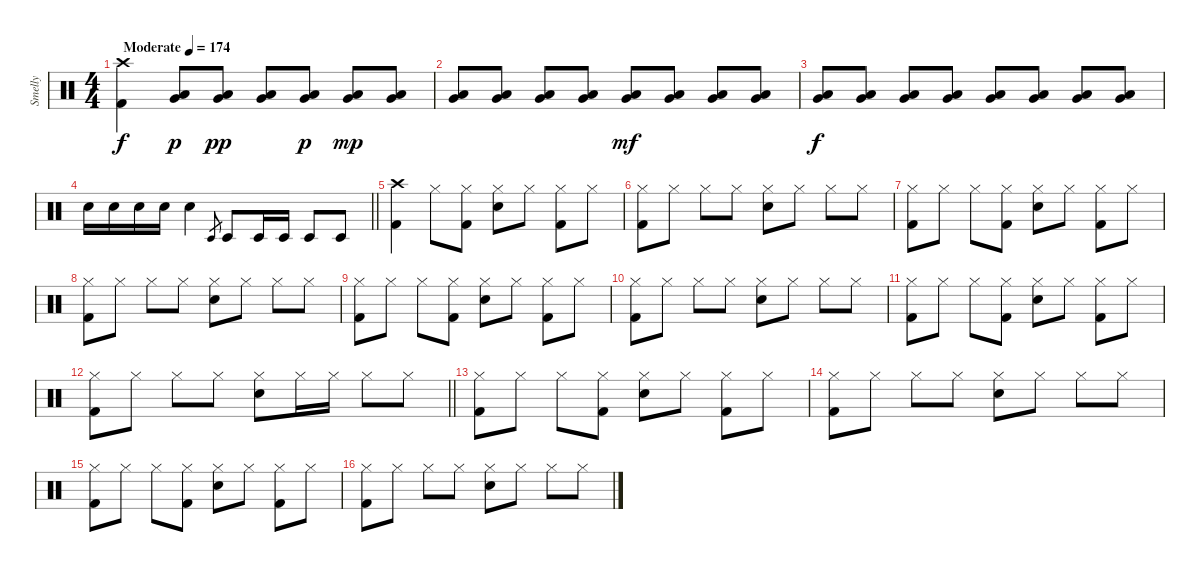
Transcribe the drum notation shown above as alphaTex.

\track ("Smelly" "Smelly") {instrument percussion}
\staff {score}
\articulation defaults
\ts (4 4)
\tempo (174 "Moderate")
\clef neutral
\ks c
("Crash high (hit)" "Kick (hit) 2").4{dy f} ("Very Low Tom (hit)" "Low Floor Tom (hit)").8{dy p} ("Very Low Tom (hit)" "Low Floor Tom (hit)").8{dy pp} ("Very Low Tom (hit)" "Low Floor Tom (hit)").8 ("Very Low Tom (hit)" "Low Floor Tom (hit)").8{dy p} ("Very Low Tom (hit)" "Low Floor Tom (hit)").8{dy mp} ("Very Low Tom (hit)" "Low Floor Tom (hit)").8 |
("Very Low Tom (hit)" "Low Floor Tom (hit)").8 ("Very Low Tom (hit)" "Low Floor Tom (hit)").8 ("Very Low Tom (hit)" "Low Floor Tom (hit)").8 ("Very Low Tom (hit)" "Low Floor Tom (hit)").8 ("Very Low Tom (hit)" "Low Floor Tom (hit)").8{dy mf} ("Very Low Tom (hit)" "Low Floor Tom (hit)").8 ("Very Low Tom (hit)" "Low Floor Tom (hit)").8 ("Very Low Tom (hit)" "Low Floor Tom (hit)").8 |
("Very Low Tom (hit)" "Low Floor Tom (hit)").8{dy f} ("Very Low Tom (hit)" "Low Floor Tom (hit)").8 ("Very Low Tom (hit)" "Low Floor Tom (hit)").8 ("Very Low Tom (hit)" "Low Floor Tom (hit)").8 ("Very Low Tom (hit)" "Low Floor Tom (hit)").8 ("Very Low Tom (hit)" "Low Floor Tom (hit)").8 ("Very Low Tom (hit)" "Low Floor Tom (hit)").8 ("Very Low Tom (hit)" "Low Floor Tom (hit)").8 |
\barLineRight lightlight "Electric Snare (hit)".16 "Electric Snare (hit)".16 "Electric Snare (hit)".16 "Electric Snare (hit)".16 "Electric Snare (hit)".4 "Timbale low (hit)".8{gr} "Timbale low (hit)".8 "Timbale low (hit)".16 "Timbale low (hit)".16 "Timbale low (hit)".8 "Timbale low (hit)".8
|
\section ("" "")
("Crash high (hit)" "Kick (hit) 2").4 "Hi-Hat (closed)".8 ("Hi-Hat (closed)" "Kick (hit) 2").8 ("Hi-Hat (closed)" "Electric Snare (hit)").8 "Hi-Hat (closed)".8 ("Hi-Hat (closed)" "Kick (hit) 2").8 "Hi-Hat (closed)".8 |
("Hi-Hat (closed)" "Kick (hit) 2").8 "Hi-Hat (closed)".8 "Hi-Hat (closed)".8 "Hi-Hat (closed)".8 ("Hi-Hat (closed)" "Electric Snare (hit)").8 "Hi-Hat (closed)".8 "Hi-Hat (closed)".8 "Hi-Hat (closed)".8 |
("Hi-Hat (closed)" "Kick (hit) 2").8 "Hi-Hat (closed)".8 "Hi-Hat (closed)".8 ("Hi-Hat (closed)" "Kick (hit) 2").8 ("Hi-Hat (closed)" "Electric Snare (hit)").8 "Hi-Hat (closed)".8 ("Hi-Hat (closed)" "Kick (hit) 2").8 "Hi-Hat (closed)".8 |
("Hi-Hat (closed)" "Kick (hit) 2").8 "Hi-Hat (closed)".8 "Hi-Hat (closed)".8 "Hi-Hat (closed)".8 ("Hi-Hat (closed)" "Electric Snare (hit)").8 "Hi-Hat (closed)".8 "Hi-Hat (closed)".8 "Hi-Hat (closed)".8 |
("Hi-Hat (closed)" "Kick (hit) 2").8 "Hi-Hat (closed)".8 "Hi-Hat (closed)".8 ("Hi-Hat (closed)" "Kick (hit) 2").8 ("Hi-Hat (closed)" "Electric Snare (hit)").8 "Hi-Hat (closed)".8 ("Hi-Hat (closed)" "Kick (hit) 2").8 "Hi-Hat (closed)".8 |
("Hi-Hat (closed)" "Kick (hit) 2").8 "Hi-Hat (closed)".8 "Hi-Hat (closed)".8 "Hi-Hat (closed)".8 ("Hi-Hat (closed)" "Electric Snare (hit)").8 "Hi-Hat (closed)".8 "Hi-Hat (closed)".8 "Hi-Hat (closed)".8 |
("Hi-Hat (closed)" "Kick (hit) 2").8 "Hi-Hat (closed)".8 "Hi-Hat (closed)".8 ("Hi-Hat (closed)" "Kick (hit) 2").8 ("Hi-Hat (closed)" "Electric Snare (hit)").8 "Hi-Hat (closed)".8 ("Hi-Hat (closed)" "Kick (hit) 2").8 "Hi-Hat (closed)".8 |
\barLineRight lightlight
("Hi-Hat (closed)" "Kick (hit) 2").8 "Hi-Hat (closed)".8 "Hi-Hat (closed)".8 "Hi-Hat (closed)".8 ("Hi-Hat (closed)" "Electric Snare (hit)").8 "Hi-Hat (closed)".16 "Hi-Hat (closed)".16 "Hi-Hat (closed)".8 "Hi-Hat (closed)".8 |
\section ("" "")
("Hi-Hat (closed)" "Kick (hit) 2").8 "Hi-Hat (closed)".8 "Hi-Hat (closed)".8 ("Hi-Hat (closed)" "Kick (hit) 2").8 ("Hi-Hat (closed)" "Electric Snare (hit)").8 "Hi-Hat (closed)".8 ("Hi-Hat (closed)" "Kick (hit) 2").8 "Hi-Hat (closed)".8 |
("Hi-Hat (closed)" "Kick (hit) 2").8 "Hi-Hat (closed)".8 "Hi-Hat (closed)".8 "Hi-Hat (closed)".8 ("Hi-Hat (closed)" "Electric Snare (hit)").8 "Hi-Hat (closed)".8 "Hi-Hat (closed)".8 "Hi-Hat (closed)".8 |
("Hi-Hat (closed)" "Kick (hit) 2").8 "Hi-Hat (closed)".8 "Hi-Hat (closed)".8 ("Hi-Hat (closed)" "Kick (hit) 2").8 ("Hi-Hat (closed)" "Electric Snare (hit)").8 "Hi-Hat (closed)".8 ("Hi-Hat (closed)" "Kick (hit) 2").8 "Hi-Hat (closed)".8 |
("Hi-Hat (closed)" "Kick (hit) 2").8 "Hi-Hat (closed)".8 "Hi-Hat (closed)".8 "Hi-Hat (closed)".8 ("Hi-Hat (closed)" "Electric Snare (hit)").8 "Hi-Hat (closed)".8 "Hi-Hat (closed)".8 "Hi-Hat (closed)".8
